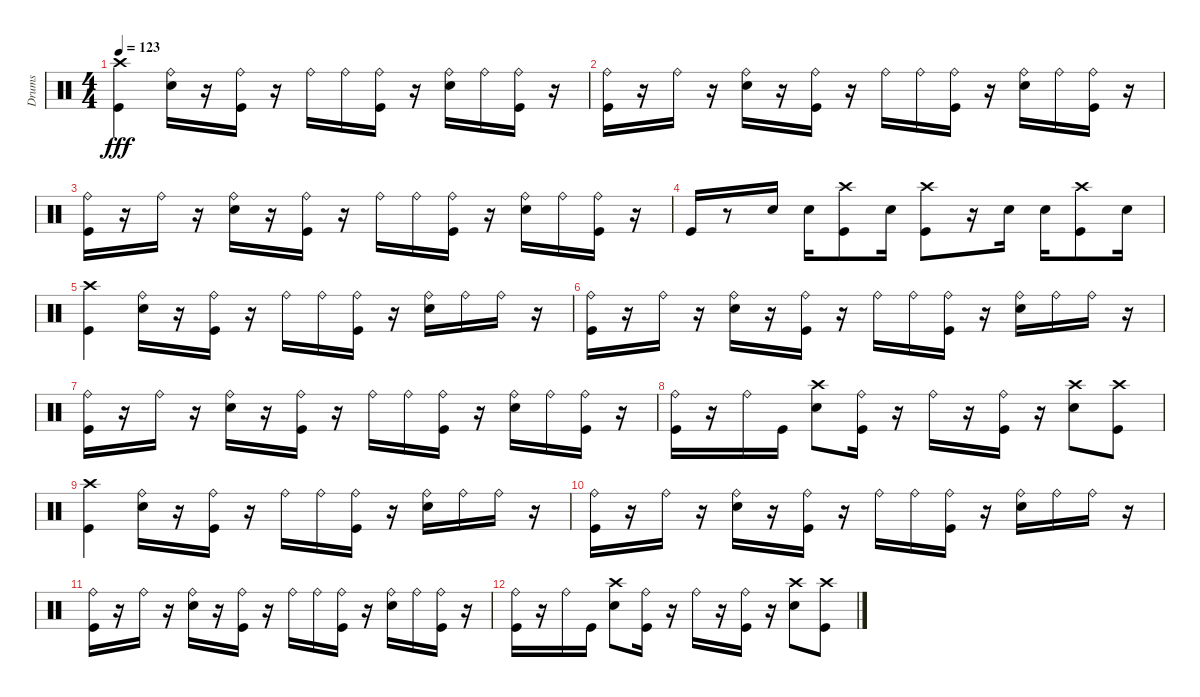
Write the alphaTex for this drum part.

\track ("Drums" "Drums") {instrument percussion}
\staff {score}
\articulation defaults
\ts (4 4)
\tempo 123
\clef neutral
\ks c
("Crash high (hit)" "Kick (hit)").4{dy fff volume 10} ("Snare (hit) 2" "Ride (bell)").16{volume 9} r.16 ("Kick (hit)" "Ride (bell)").16 r.16 "Ride (bell)".16{volume 9} "Ride (bell)".16 ("Kick (hit)" "Ride (bell)").16{volume 9} r.16 ("Snare (hit) 2" "Ride (bell)").16 "Ride (bell)".16{volume 9} ("Kick (hit)" "Ride (bell)").16 r.16 |
("Ride (bell)" "Kick (hit)").16{volume 9} r.16 "Ride (bell)".16{volume 9} r.16 ("Ride (bell)" "Snare (hit) 2").16 r.16 ("Ride (bell)" "Kick (hit)").16{volume 8} r.16 "Ride (bell)".16{volume 8} "Ride (bell)".16 ("Ride (bell)" "Kick (hit)").16{volume 8} r.16 ("Ride (bell)" "Snare (hit) 2").16 "Ride (bell)".16{volume 8} ("Ride (bell)" "Kick (hit)").16 r.16 |
("Ride (bell)" "Kick (hit)").16{volume 8} r.16 "Ride (bell)".16{volume 8} r.16 ("Ride (bell)" "Snare (hit) 2").16 r.16 ("Ride (bell)" "Kick (hit)").16{volume 8} r.16 "Ride (bell)".16{volume 8} "Ride (bell)".16 ("Ride (bell)" "Kick (hit)").16 r.16 ("Ride (bell)" "Snare (hit) 2").16{volume 7} "Ride (bell)".16{volume 7} ("Ride (bell)" "Kick (hit)").16 r.16 |
"Kick (hit)".16{volume 7} r.8 "Snare (hit) 2".16{volume 7} "Snare (hit) 2".16 ("Kick (hit)" "Crash high (hit)").8 "Snare (hit) 2".16{volume 7} ("Kick (hit)" "Crash high (hit)").8{volume 7} r.16 "Snare (hit) 2".16{volume 7} "Snare (hit) 2".16 ("Kick (hit)" "Crash high (hit)").8 "Snare (hit) 2".16{volume 6} |
("Crash high (hit)" "Kick (hit)").4{volume 6} ("Snare (hit) 2" "Ride (bell)").16{volume 6} r.16 ("Kick (hit)" "Ride (bell)").16{volume 6} r.16 "Ride (bell)".16 "Ride (bell)".16{volume 6} ("Kick (hit)" "Ride (bell)").16 r.16 ("Snare (hit) 2" "Ride (bell)").16{volume 6} "Ride (bell)".16 "Ride (bell)".16{volume 6} r.16 |
("Ride (bell)" "Kick (hit)").16 r.16 "Ride (bell)".16{volume 6} r.16 ("Ride (bell)" "Snare (hit) 2").16{volume 5} r.16 ("Ride (bell)" "Kick (hit)").16{volume 5} r.16 "Ride (bell)".16 "Ride (bell)".16{volume 5} ("Ride (bell)" "Kick (hit)").16 r.16 ("Ride (bell)" "Snare (hit) 2").16{volume 5} "Ride (bell)".16 "Ride (bell)".16{volume 5} r.16 |
("Kick (hit)" "Ride (bell)").16 r.16 "Ride (bell)".16{volume 5} r.16 ("Snare (hit) 2" "Ride (bell)").16{volume 5} r.16 ("Kick (hit)" "Ride (bell)").16 r.16 "Ride (bell)".16{volume 4} "Ride (bell)".16{volume 4} ("Kick (hit)" "Ride (bell)").16 r.16 ("Snare (hit) 2" "Ride (bell)").16{volume 4} "Ride (bell)".16 ("Kick (hit)" "Ride (bell)").16 r.16 |
("Ride (bell)" "Kick (hit)").16{volume 4} r.16 "Ride (bell)".16{volume 4} "Kick (hit)".16 ("Snare (hit) 2" "Crash high (hit)").8{volume 4} ("Ride (bell)" "Kick (hit)").16 r.16 "Ride (bell)".16{volume 4} r.16 ("Ride (bell)" "Kick (hit)").16{volume 4} r.16 ("Snare (hit) 2" "Crash high (hit)").8{volume 3} ("Kick (hit)" "Crash high (hit)").8 |
("Crash high (hit)" "Kick (hit)").4{volume 3} ("Snare (hit) 2" "Ride (bell)").16{volume 3} r.16 ("Kick (hit)" "Ride (bell)").16{volume 3} r.16 "Ride (bell)".16{volume 3} "Ride (bell)".16 ("Kick (hit)" "Ride (bell)").16{volume 3} r.16 ("Snare (hit) 2" "Ride (bell)").16 "Ride (bell)".16{volume 2} "Ride (bell)".16 r.16 |
("Ride (bell)" "Kick (hit)").16{volume 2} r.16 "Ride (bell)".16{volume 2} r.16 ("Ride (bell)" "Snare (hit) 2").16 r.16 ("Ride (bell)" "Kick (hit)").16{volume 2} r.16 "Ride (bell)".16{volume 2} "Ride (bell)".16 ("Ride (bell)" "Kick (hit)").16{volume 2} r.16 ("Ride (bell)" "Snare (hit) 2").16 "Ride (bell)".16{volume 2} "Ride (bell)".16 r.16 |
("Kick (hit)" "Ride (bell)").16{volume 2} r.16 "Ride (bell)".16 r.16 ("Snare (hit) 2" "Ride (bell)").16{volume 2} r.16 ("Kick (hit)" "Ride (bell)").16{volume 1} r.16 "Ride (bell)".16{volume 1} "Ride (bell)".16 ("Kick (hit)" "Ride (bell)").16 r.16 ("Snare (hit) 2" "Ride (bell)").16{volume 1} "Ride (bell)".16{volume 1} ("Kick (hit)" "Ride (bell)").16 r.16 |
("Ride (bell)" "Kick (hit)").16{volume 1} r.16 "Ride (bell)".16 "Kick (hit)".16{volume 1} ("Snare (hit) 2" "Crash high (hit)").8 ("Ride (bell)" "Kick (hit)").16{volume 0} r.16 "Ride (bell)".16{volume 0} r.16 ("Ride (bell)" "Kick (hit)").16 r.16 ("Snare (hit) 2" "Crash high (hit)").8{volume 0} ("Kick (hit)" "Crash high (hit)").8{volume 0}
